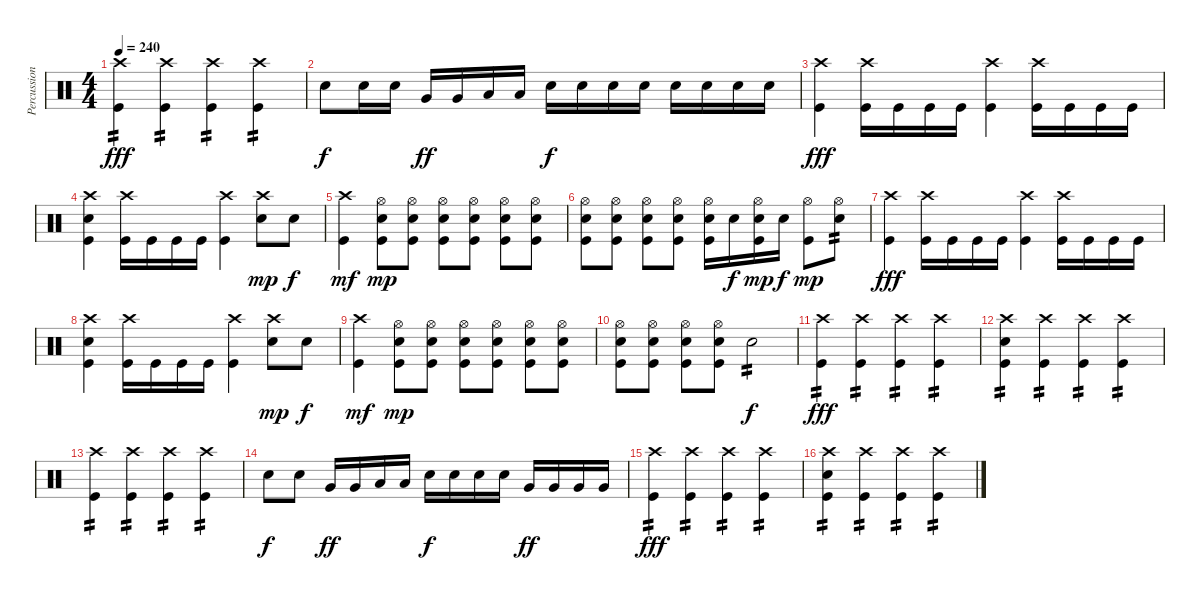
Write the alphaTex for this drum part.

\track ("Percussion" "Percussion") {instrument percussion}
\staff {score}
\articulation defaults
\ts (4 4)
\tempo 240
\clef neutral
\ks c
("Crash high (hit)" "Kick (hit)").4{tp 2 dy fff} ("Crash high (hit)" "Kick (hit)").4{tp 2} ("Crash high (hit)" "Kick (hit)").4{tp 2} ("Crash high (hit)" "Kick (hit)").4{tp 2} |
"Electric Snare (hit)".8{dy f} "Electric Snare (hit)".16 "Electric Snare (hit)".16 "Very Low Tom (hit)".16{dy ff} "Very Low Tom (hit)".16 "Low Floor Tom (hit)".16 "Low Floor Tom (hit)".16 "Electric Snare (hit)".16{dy f} "Electric Snare (hit)".16 "Electric Snare (hit)".16 "Electric Snare (hit)".16 "Electric Snare (hit)".16 "Electric Snare (hit)".16 "Electric Snare (hit)".16 "Electric Snare (hit)".16 |
("Crash high (hit)" "Kick (hit)").4{dy fff} ("Crash high (hit)" "Kick (hit)").16 "Kick (hit)".16 "Kick (hit)".16 "Kick (hit)".16 ("Crash high (hit)" "Kick (hit)").4 ("Crash high (hit)" "Kick (hit)").16 "Kick (hit)".16 "Kick (hit)".16 "Kick (hit)".16 |
("Crash high (hit)" "Electric Snare (hit)" "Kick (hit)").4 ("Crash high (hit)" "Kick (hit)").16 "Kick (hit)".16 "Kick (hit)".16 "Kick (hit)".16 ("Crash high (hit)" "Kick (hit)").4 ("Crash high (hit)" "Electric Snare (hit)").8{dy mp} "Electric Snare (hit)".8{dy f} |
("Crash high (hit)" "Kick (hit)").4{dy mf} ("Hi-Hat (open)" "Electric Snare (hit)" "Kick (hit)").8{dy mp} ("Hi-Hat (open)" "Electric Snare (hit)" "Kick (hit)").8 ("Hi-Hat (open)" "Electric Snare (hit)" "Kick (hit)").8 ("Hi-Hat (open)" "Electric Snare (hit)" "Kick (hit)").8 ("Hi-Hat (open)" "Electric Snare (hit)" "Kick (hit)").8 ("Hi-Hat (open)" "Electric Snare (hit)" "Kick (hit)").8 |
("Hi-Hat (open)" "Electric Snare (hit)" "Kick (hit)").8 ("Hi-Hat (open)" "Electric Snare (hit)" "Kick (hit)").8 ("Hi-Hat (open)" "Electric Snare (hit)" "Kick (hit)").8 ("Hi-Hat (open)" "Electric Snare (hit)" "Kick (hit)").8 ("Hi-Hat (open)" "Electric Snare (hit)" "Kick (hit)").16 "Electric Snare (hit)".16{dy f} ("Hi-Hat (open)" "Electric Snare (hit)" "Kick (hit)").16{dy mp} "Electric Snare (hit)".16{dy f} ("Hi-Hat (open)" "Kick (hit)").8{dy mp} ("Hi-Hat (open)" "Electric Snare (hit)").8{tp 2} |
("Crash high (hit)" "Kick (hit)").4{dy fff} ("Crash high (hit)" "Kick (hit)").16 "Kick (hit)".16 "Kick (hit)".16 "Kick (hit)".16 ("Crash high (hit)" "Kick (hit)").4 ("Crash high (hit)" "Kick (hit)").16 "Kick (hit)".16 "Kick (hit)".16 "Kick (hit)".16 |
("Crash high (hit)" "Electric Snare (hit)" "Kick (hit)").4 ("Crash high (hit)" "Kick (hit)").16 "Kick (hit)".16 "Kick (hit)".16 "Kick (hit)".16 ("Crash high (hit)" "Kick (hit)").4 ("Crash high (hit)" "Electric Snare (hit)").8{dy mp} "Electric Snare (hit)".8{dy f} |
("Crash high (hit)" "Kick (hit)").4{dy mf} ("Hi-Hat (open)" "Electric Snare (hit)" "Kick (hit)").8{dy mp} ("Hi-Hat (open)" "Electric Snare (hit)" "Kick (hit)").8 ("Hi-Hat (open)" "Electric Snare (hit)" "Kick (hit)").8 ("Hi-Hat (open)" "Electric Snare (hit)" "Kick (hit)").8 ("Hi-Hat (open)" "Electric Snare (hit)" "Kick (hit)").8 ("Hi-Hat (open)" "Electric Snare (hit)" "Kick (hit)").8 |
("Hi-Hat (open)" "Electric Snare (hit)" "Kick (hit)").8 ("Hi-Hat (open)" "Electric Snare (hit)" "Kick (hit)").8 ("Hi-Hat (open)" "Electric Snare (hit)" "Kick (hit)").8 ("Hi-Hat (open)" "Electric Snare (hit)" "Kick (hit)").8 "Electric Snare (hit)".2{tp 2 dy f} |
("Crash high (hit)" "Kick (hit)").4{tp 2 dy fff} ("Crash high (hit)" "Kick (hit)").4{tp 2} ("Crash high (hit)" "Kick (hit)").4{tp 2} ("Crash high (hit)" "Kick (hit)").4{tp 2} |
("Crash high (hit)" "Electric Snare (hit)" "Kick (hit)").4{tp 2} ("Crash high (hit)" "Kick (hit)").4{tp 2} ("Crash high (hit)" "Kick (hit)").4{tp 2} ("Crash high (hit)" "Kick (hit)").4{tp 2} |
("Crash high (hit)" "Kick (hit)").4{tp 2} ("Crash high (hit)" "Kick (hit)").4{tp 2} ("Crash high (hit)" "Kick (hit)").4{tp 2} ("Crash high (hit)" "Kick (hit)").4{tp 2} |
"Electric Snare (hit)".8{dy f} "Electric Snare (hit)".8 "Very Low Tom (hit)".16{dy ff} "Very Low Tom (hit)".16 "Low Floor Tom (hit)".16 "Low Floor Tom (hit)".16 "Electric Snare (hit)".16{dy f} "Electric Snare (hit)".16 "Electric Snare (hit)".16 "Electric Snare (hit)".16 "Very Low Tom (hit)".16{dy ff} "Very Low Tom (hit)".16 "Very Low Tom (hit)".16 "Very Low Tom (hit)".16 |
("Crash high (hit)" "Kick (hit)").4{tp 2 dy fff} ("Crash high (hit)" "Kick (hit)").4{tp 2} ("Crash high (hit)" "Kick (hit)").4{tp 2} ("Crash high (hit)" "Kick (hit)").4{tp 2} |
("Crash high (hit)" "Electric Snare (hit)" "Kick (hit)").4{tp 2} ("Crash high (hit)" "Kick (hit)").4{tp 2} ("Crash high (hit)" "Kick (hit)").4{tp 2} ("Crash high (hit)" "Kick (hit)").4{tp 2}
